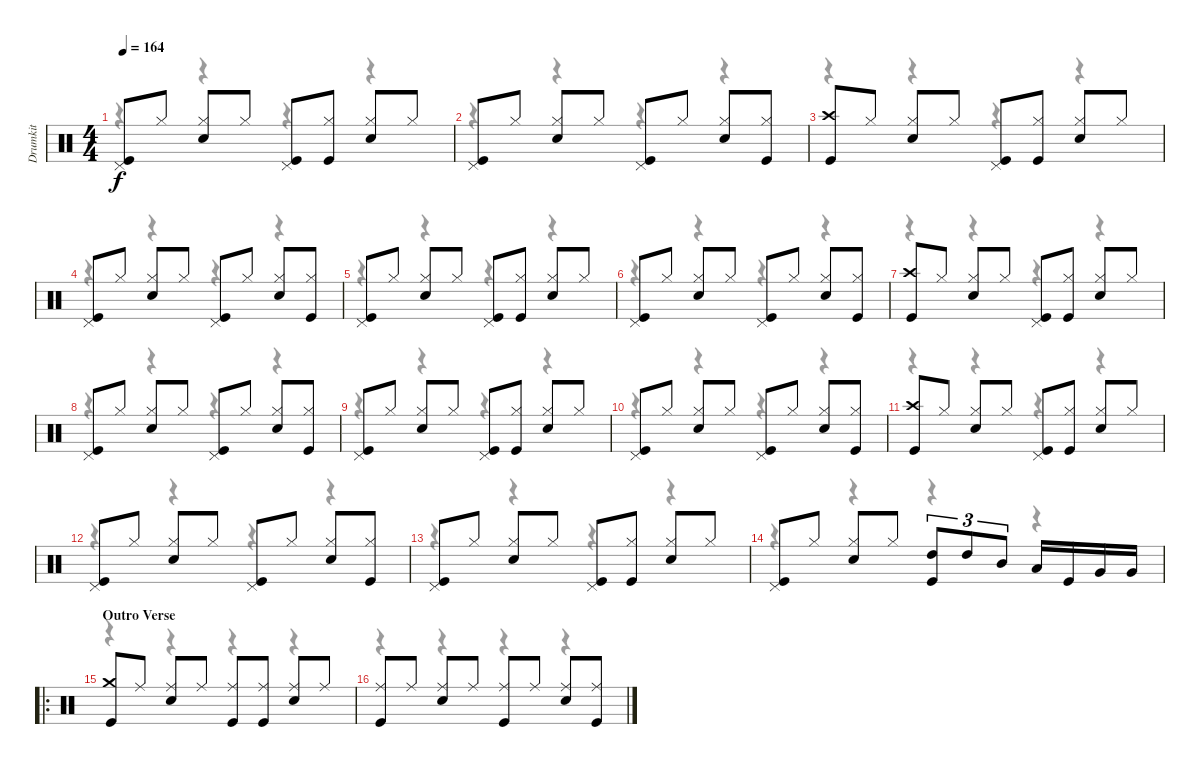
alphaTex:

\track ("Drumkit" "Drumkit") {instrument percussion}
\staff {score}
\articulation defaults
\voice
\ts (4 4)
\tempo 164
\clef neutral
\ks c
("Pedal Hi-Hat (hit)" "Kick (hit)").8{dy f} "Hi-Hat (closed)".8 ("Hi-Hat (closed)" "Snare (hit) 2").8 "Hi-Hat (closed)".8 ("Pedal Hi-Hat (hit)" "Kick (hit)").8 ("Hi-Hat (closed)" "Kick (hit)").8 ("Hi-Hat (closed)" "Snare (hit) 2").8 "Hi-Hat (closed)".8 |
("Pedal Hi-Hat (hit)" "Kick (hit)").8 "Hi-Hat (closed)".8 ("Hi-Hat (closed)" "Snare (hit) 2").8 "Hi-Hat (closed)".8 ("Pedal Hi-Hat (hit)" "Kick (hit)").8 "Hi-Hat (closed)".8 ("Hi-Hat (closed)" "Snare (hit) 2").8 ("Hi-Hat (closed)" "Kick (hit)").8 |
("Crash high (hit)" "Kick (hit)").8 "Hi-Hat (closed)".8 ("Hi-Hat (closed)" "Snare (hit) 2").8 "Hi-Hat (closed)".8 ("Pedal Hi-Hat (hit)" "Kick (hit)").8 ("Hi-Hat (closed)" "Kick (hit)").8 ("Hi-Hat (closed)" "Snare (hit) 2").8 "Hi-Hat (closed)".8 |
("Pedal Hi-Hat (hit)" "Kick (hit)").8 "Hi-Hat (closed)".8 ("Hi-Hat (closed)" "Snare (hit) 2").8 "Hi-Hat (closed)".8 ("Pedal Hi-Hat (hit)" "Kick (hit)").8 "Hi-Hat (closed)".8 ("Hi-Hat (closed)" "Snare (hit) 2").8 ("Hi-Hat (closed)" "Kick (hit)").8 |
("Pedal Hi-Hat (hit)" "Kick (hit)").8 "Hi-Hat (closed)".8 ("Hi-Hat (closed)" "Snare (hit) 2").8 "Hi-Hat (closed)".8 ("Pedal Hi-Hat (hit)" "Kick (hit)").8 ("Hi-Hat (closed)" "Kick (hit)").8 ("Hi-Hat (closed)" "Snare (hit) 2").8 "Hi-Hat (closed)".8 |
("Pedal Hi-Hat (hit)" "Kick (hit)").8 "Hi-Hat (closed)".8 ("Hi-Hat (closed)" "Snare (hit) 2").8 "Hi-Hat (closed)".8 ("Pedal Hi-Hat (hit)" "Kick (hit)").8 "Hi-Hat (closed)".8 ("Hi-Hat (closed)" "Snare (hit) 2").8 ("Hi-Hat (closed)" "Kick (hit)").8 |
("Crash high (hit)" "Kick (hit)").8 "Hi-Hat (closed)".8 ("Hi-Hat (closed)" "Snare (hit) 2").8 "Hi-Hat (closed)".8 ("Pedal Hi-Hat (hit)" "Kick (hit)").8 ("Hi-Hat (closed)" "Kick (hit)").8 ("Hi-Hat (closed)" "Snare (hit) 2").8 "Hi-Hat (closed)".8 |
("Pedal Hi-Hat (hit)" "Kick (hit)").8 "Hi-Hat (closed)".8 ("Hi-Hat (closed)" "Snare (hit) 2").8 "Hi-Hat (closed)".8 ("Pedal Hi-Hat (hit)" "Kick (hit)").8 "Hi-Hat (closed)".8 ("Hi-Hat (closed)" "Snare (hit) 2").8 ("Hi-Hat (closed)" "Kick (hit)").8 |
("Pedal Hi-Hat (hit)" "Kick (hit)").8 "Hi-Hat (closed)".8 ("Hi-Hat (closed)" "Snare (hit) 2").8 "Hi-Hat (closed)".8 ("Pedal Hi-Hat (hit)" "Kick (hit)").8 ("Hi-Hat (closed)" "Kick (hit)").8 ("Hi-Hat (closed)" "Snare (hit) 2").8 "Hi-Hat (closed)".8 |
("Pedal Hi-Hat (hit)" "Kick (hit)").8 "Hi-Hat (closed)".8 ("Hi-Hat (closed)" "Snare (hit) 2").8 "Hi-Hat (closed)".8 ("Pedal Hi-Hat (hit)" "Kick (hit)").8 "Hi-Hat (closed)".8 ("Hi-Hat (closed)" "Snare (hit) 2").8 ("Hi-Hat (closed)" "Kick (hit)").8 |
("Crash high (hit)" "Kick (hit)").8 "Hi-Hat (closed)".8 ("Hi-Hat (closed)" "Snare (hit) 2").8 "Hi-Hat (closed)".8 ("Pedal Hi-Hat (hit)" "Kick (hit)").8 ("Hi-Hat (closed)" "Kick (hit)").8 ("Hi-Hat (closed)" "Snare (hit) 2").8 "Hi-Hat (closed)".8 |
("Pedal Hi-Hat (hit)" "Kick (hit)").8 "Hi-Hat (closed)".8 ("Hi-Hat (closed)" "Snare (hit) 2").8 "Hi-Hat (closed)".8 ("Pedal Hi-Hat (hit)" "Kick (hit)").8 "Hi-Hat (closed)".8 ("Hi-Hat (closed)" "Snare (hit) 2").8 ("Hi-Hat (closed)" "Kick (hit)").8 |
("Pedal Hi-Hat (hit)" "Kick (hit)").8 "Hi-Hat (closed)".8 ("Hi-Hat (closed)" "Snare (hit) 2").8 "Hi-Hat (closed)".8 ("Pedal Hi-Hat (hit)" "Kick (hit)").8 ("Hi-Hat (closed)" "Kick (hit)").8 ("Hi-Hat (closed)" "Snare (hit) 2").8 "Hi-Hat (closed)".8 |
("Pedal Hi-Hat (hit)" "Kick (hit)").8 "Hi-Hat (closed)".8 ("Hi-Hat (closed)" "Snare (hit) 2").8 "Hi-Hat (closed)".8 ("High Tom (hit)" "Kick (hit)").8{tu (3 2)} "High Tom (hit)".8{tu (3 2)} "Mid Tom (hit)".8{tu (3 2)} "Low Tom (hit)".16 "Kick (hit)".16 "Very Low Tom (hit)".16 "Very Low Tom (hit)".16 |
\ro
\section ("" "Outro Verse")
("Crash medium (hit)" "Kick (hit)").8 "Ride (middle)".8 ("Ride (middle)" "Snare (hit) 2").8 "Ride (middle)".8 ("Ride (middle)" "Kick (hit)").8 ("Ride (middle)" "Kick (hit)").8 ("Ride (middle)" "Snare (hit) 2").8 "Ride (middle)".8 |
("Ride (middle)" "Kick (hit)").8 "Ride (middle)".8 ("Ride (middle)" "Snare (hit) 2").8 "Ride (middle)".8 ("Ride (middle)" "Kick (hit)").8 "Ride (middle)".8 ("Ride (middle)" "Snare (hit) 2").8 ("Ride (middle)" "Kick (hit)").8
\voice
\clef neutral
\ottava regular
\simile none
\ks c
r.4{dy f} r.4 r.4 r.4 |
r.4 r.4 r.4 r.4 |
r.4 r.4 r.4 r.4 |
r.4 r.4 r.4 r.4 |
r.4 r.4 r.4 r.4 |
r.4 r.4 r.4 r.4 |
r.4 r.4 r.4 r.4 |
r.4 r.4 r.4 r.4 |
r.4 r.4 r.4 r.4 |
r.4 r.4 r.4 r.4 |
r.4 r.4 r.4 r.4 |
r.4 r.4 r.4 r.4 |
r.4 r.4 r.4 r.4 |
r.4 r.4 r.4 r.4 |
r.4 r.4 r.4 r.4 |
r.4 r.4 r.4 r.4
